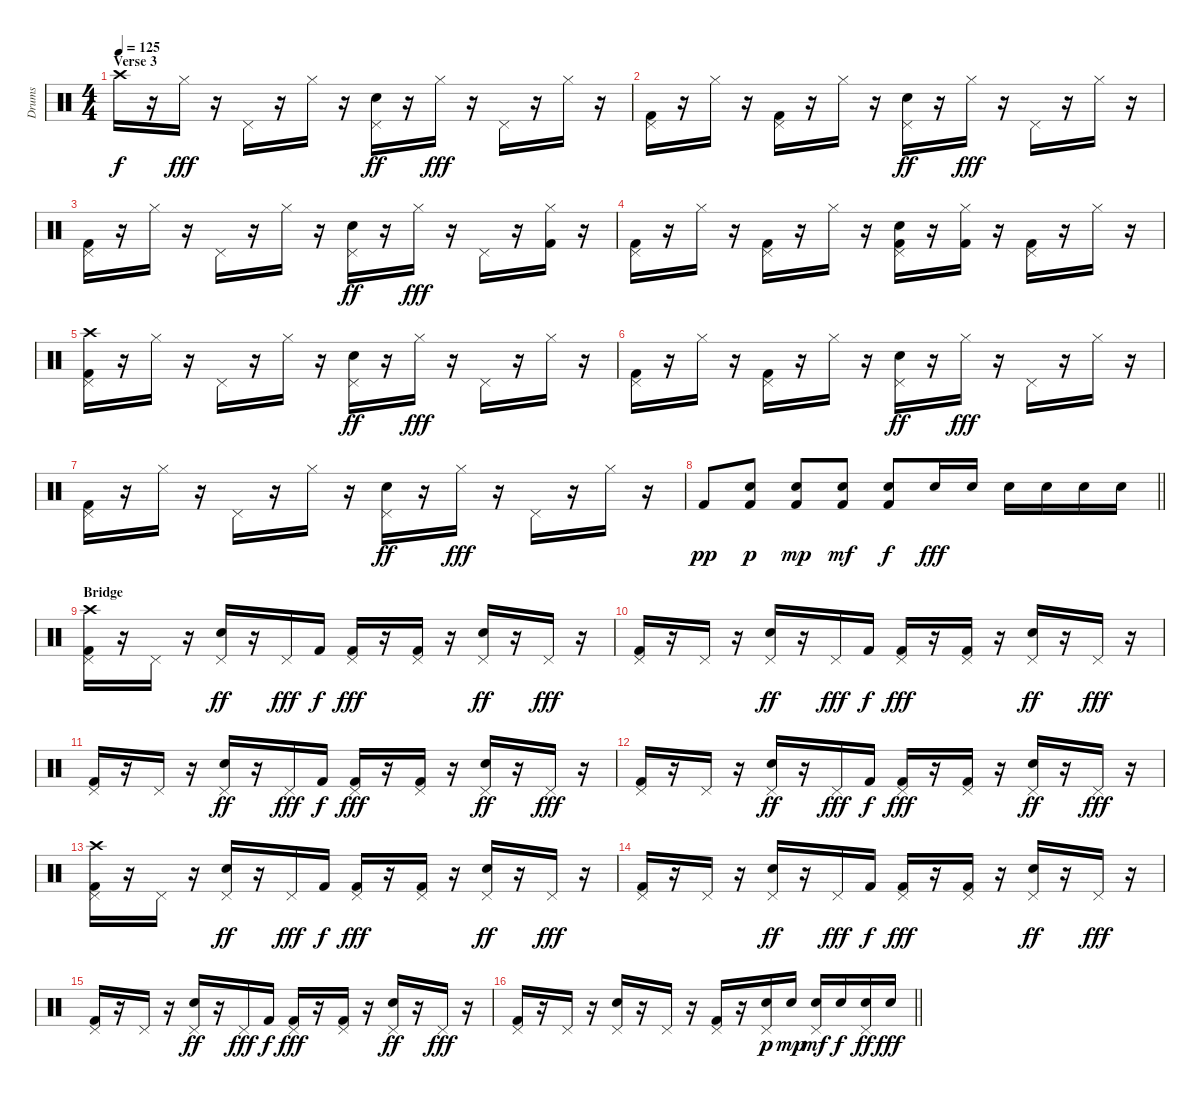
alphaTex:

\track ("Drums " "Drums ") {instrument percussion}
\staff {score}
\articulation defaults
\ts (4 4)
\section ("" "Verse 3")
\tempo 125
\clef neutral
\ks c "Crash high (hit)".16{dy f}
r.16 "Hi-Hat (closed)".16{dy fff} r.16 "Pedal Hi-Hat (hit)".16 r.16 "Hi-Hat (closed)".16 r.16 ("Pedal Hi-Hat (hit)" "Electric Snare (hit)").16{dy ff} r.16 "Hi-Hat (closed)".16{dy fff} r.16 "Pedal Hi-Hat (hit)".16 r.16 "Hi-Hat (closed)".16 r.16 |
("Pedal Hi-Hat (hit)" "Kick (hit) 2").16 r.16 "Hi-Hat (closed)".16 r.16 ("Pedal Hi-Hat (hit)" "Kick (hit) 2").16 r.16 "Hi-Hat (closed)".16 r.16 ("Pedal Hi-Hat (hit)" "Electric Snare (hit)").16{dy ff} r.16 "Hi-Hat (closed)".16{dy fff} r.16 "Pedal Hi-Hat (hit)".16 r.16 "Hi-Hat (closed)".16 r.16 |
("Pedal Hi-Hat (hit)" "Kick (hit) 2").16 r.16 "Hi-Hat (closed)".16 r.16 "Pedal Hi-Hat (hit)".16 r.16 "Hi-Hat (closed)".16 r.16 ("Pedal Hi-Hat (hit)" "Electric Snare (hit)").16{dy ff} r.16 "Hi-Hat (closed)".16{dy fff} r.16 "Pedal Hi-Hat (hit)".16 r.16 ("Hi-Hat (closed)" "Kick (hit) 2").16 r.16 |
("Pedal Hi-Hat (hit)" "Kick (hit) 2").16 r.16 "Hi-Hat (closed)".16 r.16 ("Pedal Hi-Hat (hit)" "Kick (hit) 2").16 r.16 "Hi-Hat (closed)".16 r.16 ("Pedal Hi-Hat (hit)" "Electric Snare (hit)" "Kick (hit) 2").16 r.16 ("Hi-Hat (closed)" "Kick (hit) 2").16 r.16 ("Pedal Hi-Hat (hit)" "Kick (hit) 2").16 r.16 "Hi-Hat (closed)".16 r.16 |
("Crash high (hit)" "Pedal Hi-Hat (hit)" "Kick (hit) 2").16 r.16 "Hi-Hat (closed)".16 r.16 "Pedal Hi-Hat (hit)".16 r.16 "Hi-Hat (closed)".16 r.16 ("Pedal Hi-Hat (hit)" "Electric Snare (hit)").16{dy ff} r.16 "Hi-Hat (closed)".16{dy fff} r.16 "Pedal Hi-Hat (hit)".16 r.16 "Hi-Hat (closed)".16 r.16 |
("Pedal Hi-Hat (hit)" "Kick (hit) 2").16 r.16 "Hi-Hat (closed)".16 r.16 ("Pedal Hi-Hat (hit)" "Kick (hit) 2").16 r.16 "Hi-Hat (closed)".16 r.16 ("Pedal Hi-Hat (hit)" "Electric Snare (hit)").16{dy ff} r.16 "Hi-Hat (closed)".16{dy fff} r.16 "Pedal Hi-Hat (hit)".16 r.16 "Hi-Hat (closed)".16 r.16 |
("Pedal Hi-Hat (hit)" "Kick (hit) 2").16 r.16 "Hi-Hat (closed)".16 r.16 "Pedal Hi-Hat (hit)".16 r.16 "Hi-Hat (closed)".16 r.16 ("Pedal Hi-Hat (hit)" "Electric Snare (hit)").16{dy ff} r.16 "Hi-Hat (closed)".16{dy fff} r.16 "Pedal Hi-Hat (hit)".16 r.16 "Hi-Hat (closed)".16 r.16 |
\barLineRight lightlight "Kick (hit) 2".8{dy pp}
("Electric Snare (hit)" "Kick (hit) 2").8{dy p} ("Electric Snare (hit)" "Kick (hit) 2").8{dy mp} ("Electric Snare (hit)" "Kick (hit) 2").8{dy mf} ("Electric Snare (hit)" "Kick (hit) 2").8{dy f} "Electric Snare (hit)".16{dy fff} "Electric Snare (hit)".16 "Electric Snare (hit)".16 "Electric Snare (hit)".16 "Electric Snare (hit)".16 "Electric Snare (hit)".16 |
\section ("" "Bridge")
("Crash high (hit)" "Pedal Hi-Hat (hit)" "Kick (hit) 2").16 r.16 "Pedal Hi-Hat (hit)".16 r.16 ("Pedal Hi-Hat (hit)" "Electric Snare (hit)").16{dy ff} r.16 "Pedal Hi-Hat (hit)".16{dy fff} "Kick (hit) 2".16{dy f} ("Pedal Hi-Hat (hit)" "Kick (hit) 2").16{dy fff} r.16 ("Pedal Hi-Hat (hit)" "Kick (hit) 2").16 r.16 ("Pedal Hi-Hat (hit)" "Electric Snare (hit)").16{dy ff} r.16 "Pedal Hi-Hat (hit)".16{dy fff} r.16 |
("Pedal Hi-Hat (hit)" "Kick (hit) 2").16 r.16 "Pedal Hi-Hat (hit)".16 r.16 ("Pedal Hi-Hat (hit)" "Electric Snare (hit)").16{dy ff} r.16 "Pedal Hi-Hat (hit)".16{dy fff} "Kick (hit) 2".16{dy f} ("Pedal Hi-Hat (hit)" "Kick (hit) 2").16{dy fff} r.16 ("Pedal Hi-Hat (hit)" "Kick (hit) 2").16 r.16 ("Pedal Hi-Hat (hit)" "Electric Snare (hit)").16{dy ff} r.16 "Pedal Hi-Hat (hit)".16{dy fff} r.16 |
("Pedal Hi-Hat (hit)" "Kick (hit) 2").16 r.16 "Pedal Hi-Hat (hit)".16 r.16 ("Pedal Hi-Hat (hit)" "Electric Snare (hit)").16{dy ff} r.16 "Pedal Hi-Hat (hit)".16{dy fff} "Kick (hit) 2".16{dy f} ("Pedal Hi-Hat (hit)" "Kick (hit) 2").16{dy fff} r.16 ("Pedal Hi-Hat (hit)" "Kick (hit) 2").16 r.16 ("Pedal Hi-Hat (hit)" "Electric Snare (hit)").16{dy ff} r.16 "Pedal Hi-Hat (hit)".16{dy fff} r.16 |
("Pedal Hi-Hat (hit)" "Kick (hit) 2").16 r.16 "Pedal Hi-Hat (hit)".16 r.16 ("Pedal Hi-Hat (hit)" "Electric Snare (hit)").16{dy ff} r.16 "Pedal Hi-Hat (hit)".16{dy fff} "Kick (hit) 2".16{dy f} ("Pedal Hi-Hat (hit)" "Kick (hit) 2").16{dy fff} r.16 ("Pedal Hi-Hat (hit)" "Kick (hit) 2").16 r.16 ("Pedal Hi-Hat (hit)" "Electric Snare (hit)").16{dy ff} r.16 "Pedal Hi-Hat (hit)".16{dy fff} r.16 |
("Crash high (hit)" "Pedal Hi-Hat (hit)" "Kick (hit) 2").16 r.16 "Pedal Hi-Hat (hit)".16 r.16 ("Pedal Hi-Hat (hit)" "Electric Snare (hit)").16{dy ff} r.16 "Pedal Hi-Hat (hit)".16{dy fff} "Kick (hit) 2".16{dy f} ("Pedal Hi-Hat (hit)" "Kick (hit) 2").16{dy fff} r.16 ("Pedal Hi-Hat (hit)" "Kick (hit) 2").16 r.16 ("Pedal Hi-Hat (hit)" "Electric Snare (hit)").16{dy ff} r.16 "Pedal Hi-Hat (hit)".16{dy fff} r.16 |
("Pedal Hi-Hat (hit)" "Kick (hit) 2").16 r.16 "Pedal Hi-Hat (hit)".16 r.16 ("Pedal Hi-Hat (hit)" "Electric Snare (hit)").16{dy ff} r.16 "Pedal Hi-Hat (hit)".16{dy fff} "Kick (hit) 2".16{dy f} ("Pedal Hi-Hat (hit)" "Kick (hit) 2").16{dy fff} r.16 ("Pedal Hi-Hat (hit)" "Kick (hit) 2").16 r.16 ("Pedal Hi-Hat (hit)" "Electric Snare (hit)").16{dy ff} r.16 "Pedal Hi-Hat (hit)".16{dy fff} r.16 |
("Pedal Hi-Hat (hit)" "Kick (hit) 2").16 r.16 "Pedal Hi-Hat (hit)".16 r.16 ("Pedal Hi-Hat (hit)" "Electric Snare (hit)").16{dy ff} r.16 "Pedal Hi-Hat (hit)".16{dy fff} "Kick (hit) 2".16{dy f} ("Pedal Hi-Hat (hit)" "Kick (hit) 2").16{dy fff} r.16 ("Pedal Hi-Hat (hit)" "Kick (hit) 2").16 r.16 ("Pedal Hi-Hat (hit)" "Electric Snare (hit)").16{dy ff} r.16 "Pedal Hi-Hat (hit)".16{dy fff} r.16 |
\barLineRight lightlight
("Pedal Hi-Hat (hit)" "Kick (hit) 2").16 r.16 "Pedal Hi-Hat (hit)".16 r.16 ("Pedal Hi-Hat (hit)" "Electric Snare (hit)").16 r.16 "Pedal Hi-Hat (hit)".16 r.16 ("Pedal Hi-Hat (hit)" "Kick (hit) 2").16 r.16 ("Pedal Hi-Hat (hit)" "Electric Snare (hit)").16{dy p} "Electric Snare (hit)".16{dy mp} ("Pedal Hi-Hat (hit)" "Electric Snare (hit)").16{dy mf} "Electric Snare (hit)".16{dy f} ("Pedal Hi-Hat (hit)" "Electric Snare (hit)").16{dy ff} "Electric Snare (hit)".16{dy fff}
